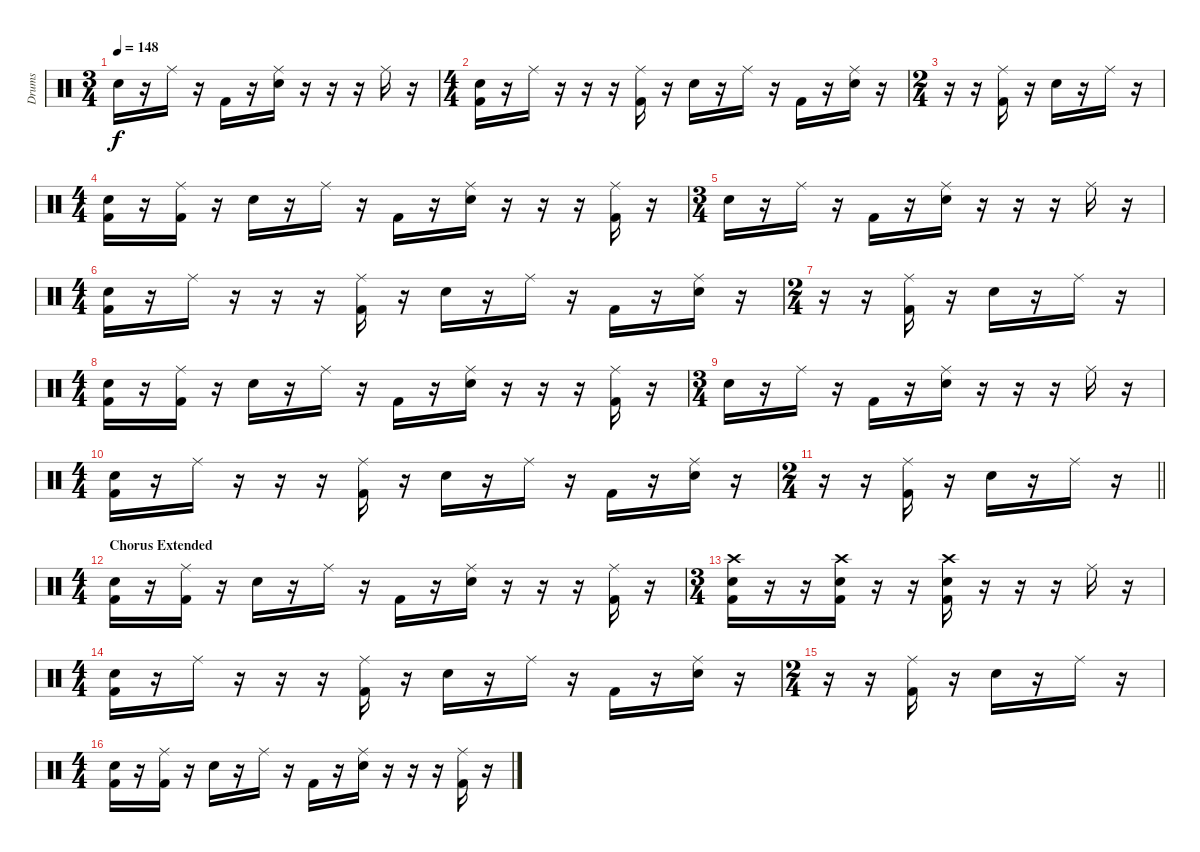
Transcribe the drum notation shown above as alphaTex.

\track ("Drums" "Drums") {instrument percussion}
\staff {score}
\articulation defaults
\ts (3 4)
\tempo 148
\clef neutral
\ks c "Electric Snare (hit)".16{dy f}
r.16 "Ride (middle)".16 r.16 "Kick (hit) 2".16 r.16 ("Ride (middle)" "Electric Snare (hit)").16 r.16 r.16 r.16 "Ride (middle)".16 r.16 |
\ts (4 4)
("Electric Snare (hit)" "Kick (hit) 2").16 r.16 "Ride (middle)".16 r.16 r.16 r.16 ("Ride (middle)" "Kick (hit) 2").16 r.16 "Electric Snare (hit)".16 r.16 "Ride (middle)".16 r.16 "Kick (hit) 2".16 r.16 ("Ride (middle)" "Electric Snare (hit)").16 r.16 |
\ts (2 4)
r.16 r.16 ("Ride (middle)" "Kick (hit) 2").16 r.16 "Electric Snare (hit)".16 r.16 "Ride (middle)".16 r.16 |
\ts (4 4)
("Electric Snare (hit)" "Kick (hit) 2").16 r.16 ("Ride (middle)" "Kick (hit) 2").16 r.16 "Electric Snare (hit)".16 r.16 "Ride (middle)".16 r.16 "Kick (hit) 2".16 r.16 ("Ride (middle)" "Electric Snare (hit)").16 r.16 r.16 r.16 ("Ride (middle)" "Kick (hit) 2").16 r.16 |
\ts (3 4)
"Electric Snare (hit)".16 r.16 "Ride (middle)".16 r.16 "Kick (hit) 2".16 r.16 ("Ride (middle)" "Electric Snare (hit)").16 r.16 r.16 r.16 "Ride (middle)".16 r.16 |
\ts (4 4)
("Electric Snare (hit)" "Kick (hit) 2").16 r.16 "Ride (middle)".16 r.16 r.16 r.16 ("Ride (middle)" "Kick (hit) 2").16 r.16 "Electric Snare (hit)".16 r.16 "Ride (middle)".16 r.16 "Kick (hit) 2".16 r.16 ("Ride (middle)" "Electric Snare (hit)").16 r.16 |
\ts (2 4)
r.16 r.16 ("Ride (middle)" "Kick (hit) 2").16 r.16 "Electric Snare (hit)".16 r.16 "Ride (middle)".16 r.16 |
\ts (4 4)
("Electric Snare (hit)" "Kick (hit) 2").16 r.16 ("Ride (middle)" "Kick (hit) 2").16 r.16 "Electric Snare (hit)".16 r.16 "Ride (middle)".16 r.16 "Kick (hit) 2".16 r.16 ("Ride (middle)" "Electric Snare (hit)").16 r.16 r.16 r.16 ("Ride (middle)" "Kick (hit) 2").16 r.16 |
\ts (3 4)
"Electric Snare (hit)".16 r.16 "Ride (middle)".16 r.16 "Kick (hit) 2".16 r.16 ("Ride (middle)" "Electric Snare (hit)").16 r.16 r.16 r.16 "Ride (middle)".16 r.16 |
\ts (4 4)
("Electric Snare (hit)" "Kick (hit) 2").16 r.16 "Ride (middle)".16 r.16 r.16 r.16 ("Ride (middle)" "Kick (hit) 2").16 r.16 "Electric Snare (hit)".16 r.16 "Ride (middle)".16 r.16 "Kick (hit) 2".16 r.16 ("Ride (middle)" "Electric Snare (hit)").16 r.16 |
\ts (2 4)
\barLineRight lightlight
r.16 r.16 ("Ride (middle)" "Kick (hit) 2").16 r.16 "Electric Snare (hit)".16 r.16 "Ride (middle)".16 r.16 |
\ts (4 4)
\section ("" "Chorus Extended")
("Electric Snare (hit)" "Kick (hit) 2").16 r.16 ("Ride (middle)" "Kick (hit) 2").16 r.16 "Electric Snare (hit)".16 r.16 "Ride (middle)".16 r.16 "Kick (hit) 2".16 r.16 ("Ride (middle)" "Electric Snare (hit)").16 r.16 r.16 r.16 ("Ride (middle)" "Kick (hit) 2").16 r.16 |
\ts (3 4)
("Crash high (hit)" "Electric Snare (hit)" "Kick (hit) 2").16 r.16 r.16 ("Crash high (hit)" "Electric Snare (hit)" "Kick (hit) 2").16 r.16 r.16 ("Crash high (hit)" "Electric Snare (hit)" "Kick (hit) 2").16 r.16 r.16 r.16 "Ride (middle)".16 r.16 |
\ts (4 4)
("Electric Snare (hit)" "Kick (hit) 2").16 r.16 "Ride (middle)".16 r.16 r.16 r.16 ("Ride (middle)" "Kick (hit) 2").16 r.16 "Electric Snare (hit)".16 r.16 "Ride (middle)".16 r.16 "Kick (hit) 2".16 r.16 ("Ride (middle)" "Electric Snare (hit)").16 r.16 |
\ts (2 4)
r.16 r.16 ("Ride (middle)" "Kick (hit) 2").16 r.16 "Electric Snare (hit)".16 r.16 "Ride (middle)".16 r.16 |
\ts (4 4)
("Electric Snare (hit)" "Kick (hit) 2").16 r.16 ("Ride (middle)" "Kick (hit) 2").16 r.16 "Electric Snare (hit)".16 r.16 "Ride (middle)".16 r.16 "Kick (hit) 2".16 r.16 ("Ride (middle)" "Electric Snare (hit)").16 r.16 r.16 r.16 ("Ride (middle)" "Kick (hit) 2").16 r.16
